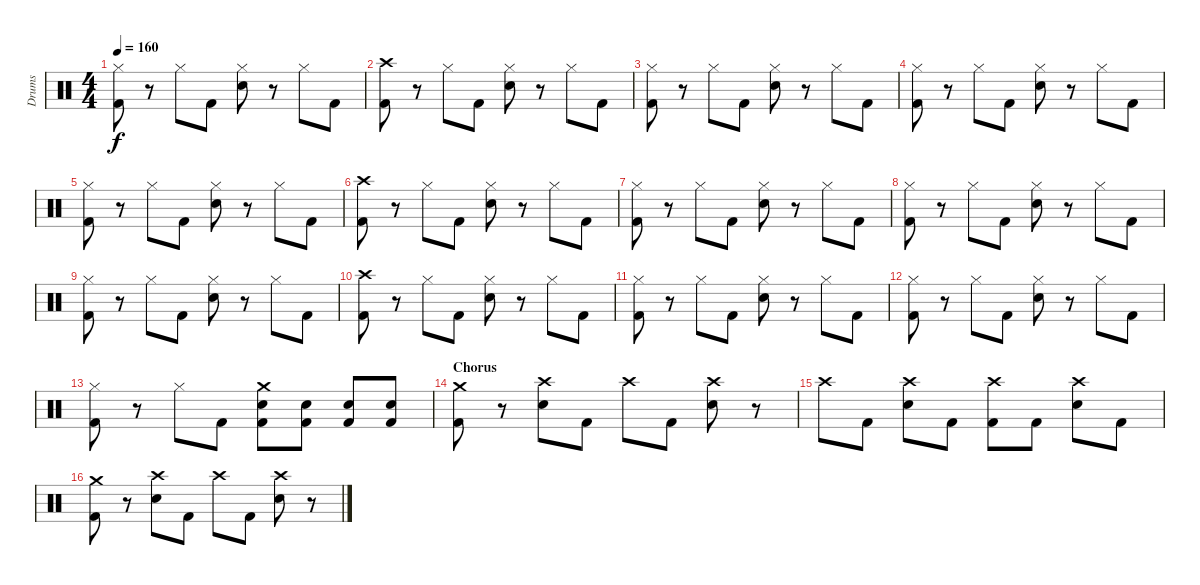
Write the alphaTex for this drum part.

\track ("Drums" "Drums") {instrument percussion}
\staff {score}
\articulation defaults
\ts (4 4)
\tempo 160
\clef neutral
\ks c
("Hi-Hat (closed)" "Kick (hit) 2").8{dy f} r.8 "Hi-Hat (closed)".8 "Kick (hit) 2".8 ("Hi-Hat (closed)" "Electric Snare (hit)").8 r.8 "Hi-Hat (closed)".8 "Kick (hit) 2".8 |
("Crash high (hit)" "Kick (hit) 2").8 r.8 "Hi-Hat (closed)".8 "Kick (hit) 2".8 ("Hi-Hat (closed)" "Electric Snare (hit)").8 r.8 "Hi-Hat (closed)".8 "Kick (hit) 2".8 |
("Hi-Hat (closed)" "Kick (hit) 2").8 r.8 "Hi-Hat (closed)".8 "Kick (hit) 2".8 ("Hi-Hat (closed)" "Electric Snare (hit)").8 r.8 "Hi-Hat (closed)".8 "Kick (hit) 2".8 |
("Hi-Hat (closed)" "Kick (hit) 2").8 r.8 "Hi-Hat (closed)".8 "Kick (hit) 2".8 ("Hi-Hat (closed)" "Electric Snare (hit)").8 r.8 "Hi-Hat (closed)".8 "Kick (hit) 2".8 |
("Hi-Hat (closed)" "Kick (hit) 2").8 r.8 "Hi-Hat (closed)".8 "Kick (hit) 2".8 ("Hi-Hat (closed)" "Electric Snare (hit)").8 r.8 "Hi-Hat (closed)".8 "Kick (hit) 2".8 |
("Crash high (hit)" "Kick (hit) 2").8 r.8 "Hi-Hat (closed)".8 "Kick (hit) 2".8 ("Hi-Hat (closed)" "Electric Snare (hit)").8 r.8 "Hi-Hat (closed)".8 "Kick (hit) 2".8 |
("Hi-Hat (closed)" "Kick (hit) 2").8 r.8 "Hi-Hat (closed)".8 "Kick (hit) 2".8 ("Hi-Hat (closed)" "Electric Snare (hit)").8 r.8 "Hi-Hat (closed)".8 "Kick (hit) 2".8 |
("Hi-Hat (closed)" "Kick (hit) 2").8 r.8 "Hi-Hat (closed)".8 "Kick (hit) 2".8 ("Hi-Hat (closed)" "Electric Snare (hit)").8 r.8 "Hi-Hat (closed)".8 "Kick (hit) 2".8 |
("Hi-Hat (closed)" "Kick (hit) 2").8 r.8 "Hi-Hat (closed)".8 "Kick (hit) 2".8 ("Hi-Hat (closed)" "Electric Snare (hit)").8 r.8 "Hi-Hat (closed)".8 "Kick (hit) 2".8 |
("Crash high (hit)" "Kick (hit) 2").8 r.8 "Hi-Hat (closed)".8 "Kick (hit) 2".8 ("Hi-Hat (closed)" "Electric Snare (hit)").8 r.8 "Hi-Hat (closed)".8 "Kick (hit) 2".8 |
("Hi-Hat (closed)" "Kick (hit) 2").8 r.8 "Hi-Hat (closed)".8 "Kick (hit) 2".8 ("Hi-Hat (closed)" "Electric Snare (hit)").8 r.8 "Hi-Hat (closed)".8 "Kick (hit) 2".8 |
("Hi-Hat (closed)" "Kick (hit) 2").8 r.8 "Hi-Hat (closed)".8 "Kick (hit) 2".8 ("Hi-Hat (closed)" "Electric Snare (hit)").8 r.8 "Hi-Hat (closed)".8 "Kick (hit) 2".8 |
("Hi-Hat (closed)" "Kick (hit) 2").8 r.8 "Hi-Hat (closed)".8 "Kick (hit) 2".8 ("Crash medium (hit)" "Electric Snare (hit)" "Kick (hit) 2").8 ("Electric Snare (hit)" "Kick (hit) 2").8 ("Electric Snare (hit)" "Kick (hit) 2").8 ("Electric Snare (hit)" "Kick (hit) 2").8 |
\section ("" "Chorus")
("Crash medium (hit)" "Kick (hit) 2").8 r.8 ("Crash high (hit)" "Electric Snare (hit)").8 "Kick (hit) 2".8 "Crash high (hit)".8 "Kick (hit) 2".8 ("Crash high (hit)" "Electric Snare (hit)").8 r.8 |
"Crash high (hit)".8 "Kick (hit) 2".8 ("Crash high (hit)" "Electric Snare (hit)").8 "Kick (hit) 2".8 ("Crash high (hit)" "Kick (hit) 2").8 "Kick (hit) 2".8 ("Crash high (hit)" "Electric Snare (hit)").8 "Kick (hit) 2".8 |
("Crash medium (hit)" "Kick (hit) 2").8 r.8 ("Crash high (hit)" "Electric Snare (hit)").8 "Kick (hit) 2".8 "Crash high (hit)".8 "Kick (hit) 2".8 ("Crash high (hit)" "Electric Snare (hit)").8 r.8
